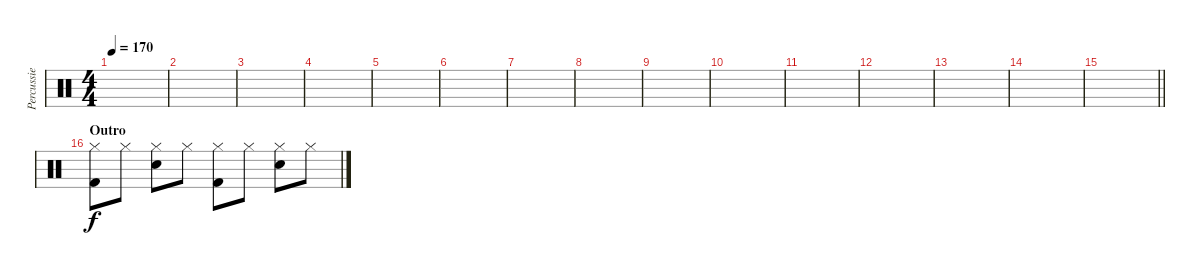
\track ("Percussie" "Percussie") {instrument percussion}
\staff {score}
\articulation defaults
\ts (4 4)
\tempo 170
\clef neutral
\ks c
|
|
|
|
|
|
|
|
|
|
|
|
|
|
\barLineRight lightlight
|
\section ("" "Outro")
("Hi-Hat (closed)" "Kick (hit) 2").8 "Hi-Hat (closed)".8 ("Hi-Hat (closed)" "Electric Snare (hit)").8 "Hi-Hat (closed)".8 ("Hi-Hat (closed)" "Kick (hit) 2").8 "Hi-Hat (closed)".8 ("Hi-Hat (closed)" "Electric Snare (hit)").8 "Hi-Hat (closed)".8
